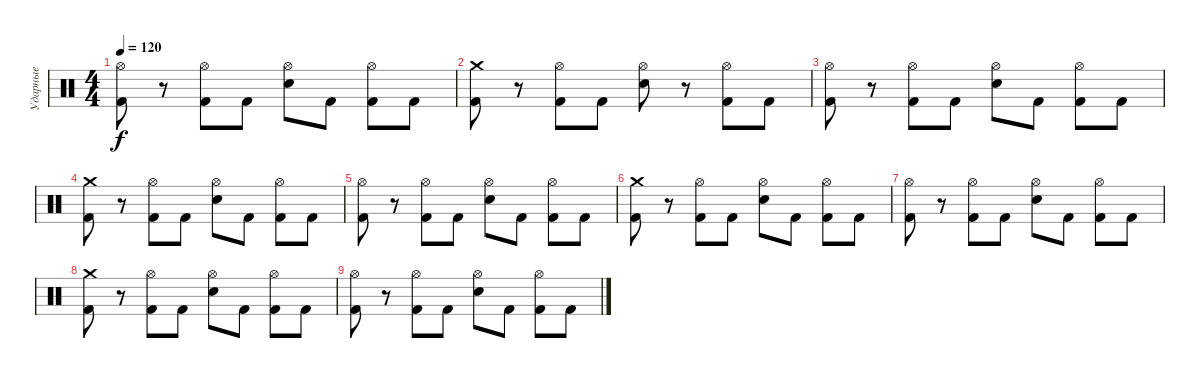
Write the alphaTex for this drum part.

\track ("Ударные" "Ударные") {instrument percussion}
\staff {score}
\articulation defaults
\ts (4 4)
\tempo 120
\clef neutral
\ks c
("Hi-Hat (open)" "Kick (hit) 2").8{dy f} r.8 ("Hi-Hat (open)" "Kick (hit) 2").8 "Kick (hit) 2".8 ("Hi-Hat (open)" "Electric Snare (hit)").8 "Kick (hit) 2".8 ("Hi-Hat (open)" "Kick (hit) 2").8 "Kick (hit) 2".8 |
("Crash medium (hit)" "Kick (hit) 2").8 r.8 ("Hi-Hat (open)" "Kick (hit) 2").8 "Kick (hit) 2".8 ("Hi-Hat (open)" "Electric Snare (hit)").8 r.8 ("Hi-Hat (open)" "Kick (hit) 2").8 "Kick (hit) 2".8 |
("Hi-Hat (open)" "Kick (hit) 2").8 r.8 ("Hi-Hat (open)" "Kick (hit) 2").8 "Kick (hit) 2".8 ("Hi-Hat (open)" "Electric Snare (hit)").8 "Kick (hit) 2".8 ("Hi-Hat (open)" "Kick (hit) 2").8 "Kick (hit) 2".8 |
("Crash medium (hit)" "Kick (hit) 2").8 r.8 ("Hi-Hat (open)" "Kick (hit) 2").8 "Kick (hit) 2".8 ("Hi-Hat (open)" "Electric Snare (hit)").8 "Kick (hit) 2".8 ("Hi-Hat (open)" "Kick (hit) 2").8 "Kick (hit) 2".8 |
("Hi-Hat (open)" "Kick (hit) 2").8 r.8 ("Hi-Hat (open)" "Kick (hit) 2").8 "Kick (hit) 2".8 ("Hi-Hat (open)" "Electric Snare (hit)").8 "Kick (hit) 2".8 ("Hi-Hat (open)" "Kick (hit) 2").8 "Kick (hit) 2".8 |
("Crash medium (hit)" "Kick (hit) 2").8 r.8 ("Hi-Hat (open)" "Kick (hit) 2").8 "Kick (hit) 2".8 ("Hi-Hat (open)" "Electric Snare (hit)").8 "Kick (hit) 2".8 ("Hi-Hat (open)" "Kick (hit) 2").8 "Kick (hit) 2".8 |
("Hi-Hat (open)" "Kick (hit) 2").8 r.8 ("Hi-Hat (open)" "Kick (hit) 2").8 "Kick (hit) 2".8 ("Hi-Hat (open)" "Electric Snare (hit)").8 "Kick (hit) 2".8 ("Hi-Hat (open)" "Kick (hit) 2").8 "Kick (hit) 2".8 |
("Crash medium (hit)" "Kick (hit) 2").8 r.8 ("Hi-Hat (open)" "Kick (hit) 2").8 "Kick (hit) 2".8 ("Hi-Hat (open)" "Electric Snare (hit)").8 "Kick (hit) 2".8 ("Hi-Hat (open)" "Kick (hit) 2").8 "Kick (hit) 2".8 |
("Hi-Hat (open)" "Kick (hit) 2").8 r.8 ("Hi-Hat (open)" "Kick (hit) 2").8 "Kick (hit) 2".8 ("Hi-Hat (open)" "Electric Snare (hit)").8 "Kick (hit) 2".8 ("Hi-Hat (open)" "Kick (hit) 2").8 "Kick (hit) 2".8
